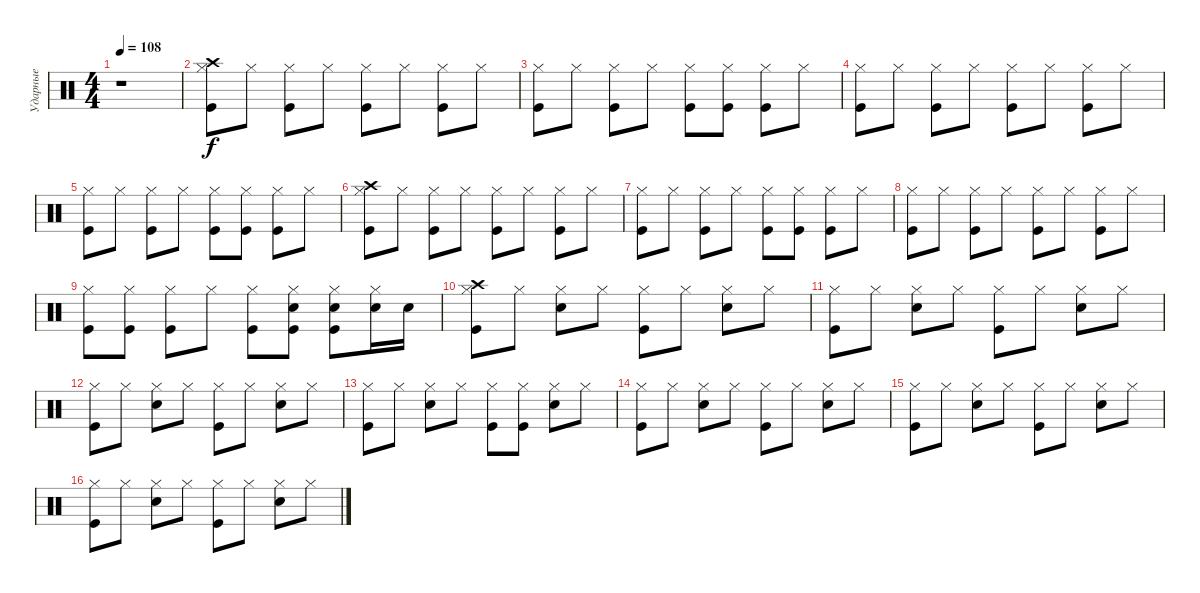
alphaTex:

\track ("Ударные" "Ударные") {instrument percussion}
\staff {score}
\articulation defaults
\ts (4 4)
\tempo 108
\clef neutral
\ks c
r.1{dy f} |
("Hi-Hat (closed)" "Kick (hit)" "Crash high (hit)").8 "Hi-Hat (closed)".8 ("Hi-Hat (closed)" "Kick (hit)").8 "Hi-Hat (closed)".8 ("Hi-Hat (closed)" "Kick (hit)").8 "Hi-Hat (closed)".8 ("Hi-Hat (closed)" "Kick (hit)").8 "Hi-Hat (closed)".8 |
("Hi-Hat (closed)" "Kick (hit)").8 "Hi-Hat (closed)".8 ("Hi-Hat (closed)" "Kick (hit)").8 "Hi-Hat (closed)".8 ("Hi-Hat (closed)" "Kick (hit)").8 ("Hi-Hat (closed)" "Kick (hit)").8 ("Hi-Hat (closed)" "Kick (hit)").8 "Hi-Hat (closed)".8 |
("Hi-Hat (closed)" "Kick (hit)").8 "Hi-Hat (closed)".8 ("Hi-Hat (closed)" "Kick (hit)").8 "Hi-Hat (closed)".8 ("Hi-Hat (closed)" "Kick (hit)").8 "Hi-Hat (closed)".8 ("Hi-Hat (closed)" "Kick (hit)").8 "Hi-Hat (closed)".8 |
("Hi-Hat (closed)" "Kick (hit)").8 "Hi-Hat (closed)".8 ("Hi-Hat (closed)" "Kick (hit)").8 "Hi-Hat (closed)".8 ("Hi-Hat (closed)" "Kick (hit)").8 ("Hi-Hat (closed)" "Kick (hit)").8 ("Hi-Hat (closed)" "Kick (hit)").8 "Hi-Hat (closed)".8 |
("Hi-Hat (closed)" "Kick (hit)" "Crash high (hit)").8 "Hi-Hat (closed)".8 ("Hi-Hat (closed)" "Kick (hit)").8 "Hi-Hat (closed)".8 ("Hi-Hat (closed)" "Kick (hit)").8 "Hi-Hat (closed)".8 ("Hi-Hat (closed)" "Kick (hit)").8 "Hi-Hat (closed)".8 |
("Hi-Hat (closed)" "Kick (hit)").8 "Hi-Hat (closed)".8 ("Hi-Hat (closed)" "Kick (hit)").8 "Hi-Hat (closed)".8 ("Hi-Hat (closed)" "Kick (hit)").8 ("Hi-Hat (closed)" "Kick (hit)").8 ("Hi-Hat (closed)" "Kick (hit)").8 "Hi-Hat (closed)".8 |
("Hi-Hat (closed)" "Kick (hit)").8 "Hi-Hat (closed)".8 ("Hi-Hat (closed)" "Kick (hit)").8 "Hi-Hat (closed)".8 ("Hi-Hat (closed)" "Kick (hit)").8 "Hi-Hat (closed)".8 ("Hi-Hat (closed)" "Kick (hit)").8 "Hi-Hat (closed)".8 |
("Hi-Hat (closed)" "Kick (hit)").8 ("Hi-Hat (closed)" "Kick (hit)").8 ("Hi-Hat (closed)" "Kick (hit)").8 "Hi-Hat (closed)".8 ("Hi-Hat (closed)" "Kick (hit)").8 ("Hi-Hat (closed)" "Kick (hit)" "Snare (hit) 2").8 ("Hi-Hat (closed)" "Kick (hit)" "Snare (hit) 2").8 ("Hi-Hat (closed)" "Snare (hit) 2").16 "Snare (hit) 2".16 |
("Hi-Hat (closed)" "Kick (hit)" "Crash high (hit)").8 "Hi-Hat (closed)".8 ("Hi-Hat (closed)" "Snare (hit) 2").8 "Hi-Hat (closed)".8 ("Hi-Hat (closed)" "Kick (hit)").8 "Hi-Hat (closed)".8 ("Hi-Hat (closed)" "Snare (hit) 2").8 "Hi-Hat (closed)".8 |
("Hi-Hat (closed)" "Kick (hit)").8 "Hi-Hat (closed)".8 ("Hi-Hat (closed)" "Snare (hit) 2").8 "Hi-Hat (closed)".8 ("Hi-Hat (closed)" "Kick (hit)").8 "Hi-Hat (closed)".8 ("Hi-Hat (closed)" "Snare (hit) 2").8 "Hi-Hat (closed)".8 |
("Hi-Hat (closed)" "Kick (hit)").8 "Hi-Hat (closed)".8 ("Hi-Hat (closed)" "Snare (hit) 2").8 "Hi-Hat (closed)".8 ("Hi-Hat (closed)" "Kick (hit)").8 "Hi-Hat (closed)".8 ("Hi-Hat (closed)" "Snare (hit) 2").8 "Hi-Hat (closed)".8 |
("Hi-Hat (closed)" "Kick (hit)").8 "Hi-Hat (closed)".8 ("Hi-Hat (closed)" "Snare (hit) 2").8 "Hi-Hat (closed)".8 ("Hi-Hat (closed)" "Kick (hit)").8 ("Hi-Hat (closed)" "Kick (hit)").8 ("Hi-Hat (closed)" "Snare (hit) 2").8 "Hi-Hat (closed)".8 |
("Hi-Hat (closed)" "Kick (hit)").8 "Hi-Hat (closed)".8 ("Hi-Hat (closed)" "Snare (hit) 2").8 "Hi-Hat (closed)".8 ("Hi-Hat (closed)" "Kick (hit)").8 "Hi-Hat (closed)".8 ("Hi-Hat (closed)" "Snare (hit) 2").8 "Hi-Hat (closed)".8 |
("Hi-Hat (closed)" "Kick (hit)").8 "Hi-Hat (closed)".8 ("Hi-Hat (closed)" "Snare (hit) 2").8 "Hi-Hat (closed)".8 ("Hi-Hat (closed)" "Kick (hit)").8 "Hi-Hat (closed)".8 ("Hi-Hat (closed)" "Snare (hit) 2").8 "Hi-Hat (closed)".8 |
("Hi-Hat (closed)" "Kick (hit)").8 "Hi-Hat (closed)".8 ("Hi-Hat (closed)" "Snare (hit) 2").8 "Hi-Hat (closed)".8 ("Hi-Hat (closed)" "Kick (hit)").8 "Hi-Hat (closed)".8 ("Hi-Hat (closed)" "Snare (hit) 2").8 "Hi-Hat (closed)".8
